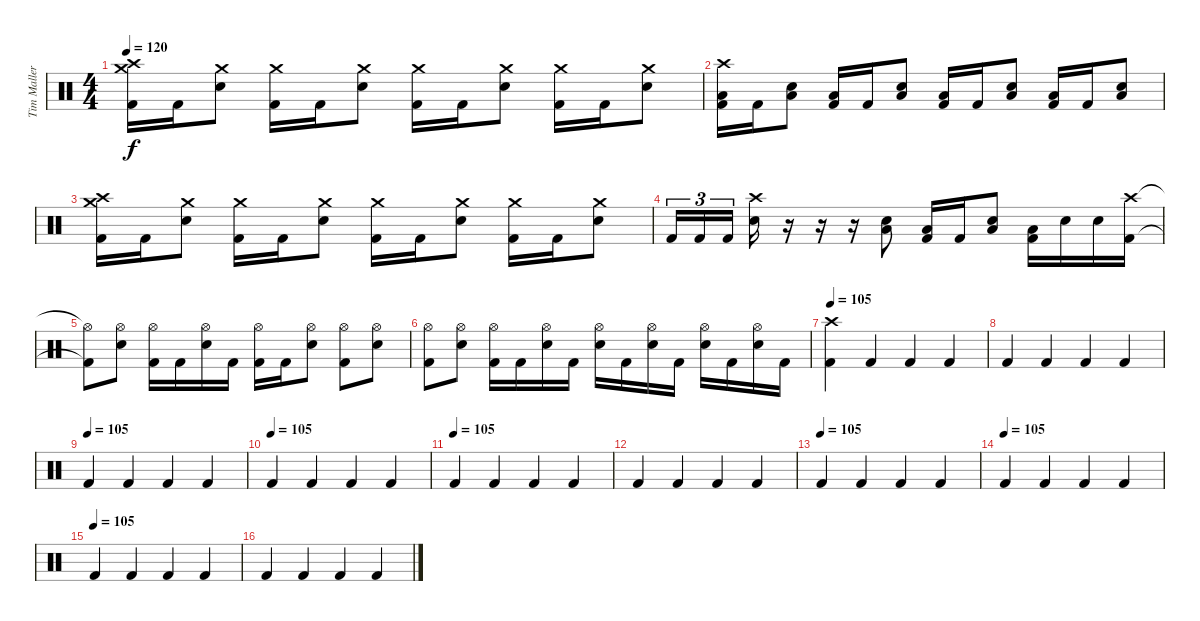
\track ("Tim Mallere" "Tim Maller") {instrument percussion}
\staff {score}
\articulation defaults
\ts (4 4)
\tempo 120
\clef neutral
\ks c
("Crash high (hit)" "Crash medium (hit)" "Kick (hit) 2").16{dy f} "Kick (hit) 2".16 ("Crash medium (hit)" "Electric Snare (hit)").8 ("Crash medium (hit)" "Kick (hit) 2").16 "Kick (hit) 2".16 ("Crash medium (hit)" "Electric Snare (hit)").8 ("Crash medium (hit)" "Kick (hit) 2").16 "Kick (hit) 2".16 ("Crash medium (hit)" "Electric Snare (hit)").8 ("Crash medium (hit)" "Kick (hit) 2").16 "Kick (hit) 2".16 ("Crash medium (hit)" "Electric Snare (hit)").8 |
("Crash high (hit)" "Low Floor Tom (hit)" "Kick (hit) 2").16 "Kick (hit) 2".16 ("Low Floor Tom (hit)" "Electric Snare (hit)").8 ("Low Floor Tom (hit)" "Kick (hit) 2").16 "Kick (hit) 2".16 ("Low Floor Tom (hit)" "Electric Snare (hit)").8 ("Low Floor Tom (hit)" "Kick (hit) 2").16 "Kick (hit) 2".16 ("Low Floor Tom (hit)" "Electric Snare (hit)").8 ("Low Floor Tom (hit)" "Kick (hit) 2").16 "Kick (hit) 2".16 ("Low Floor Tom (hit)" "Electric Snare (hit)").8 |
("Crash high (hit)" "Crash medium (hit)" "Kick (hit) 2").16 "Kick (hit) 2".16 ("Crash medium (hit)" "Electric Snare (hit)").8 ("Crash medium (hit)" "Kick (hit) 2").16 "Kick (hit) 2".16 ("Crash medium (hit)" "Electric Snare (hit)").8 ("Crash medium (hit)" "Kick (hit) 2").16 "Kick (hit) 2".16 ("Crash medium (hit)" "Electric Snare (hit)").8 ("Crash medium (hit)" "Kick (hit) 2").16 "Kick (hit) 2".16 ("Crash medium (hit)" "Electric Snare (hit)").8 |
"Kick (hit) 2".16{tu (3 2)} "Kick (hit) 2".16{tu (3 2)} "Kick (hit) 2".16{tu (3 2)} ("Crash high (hit)" "Electric Snare (hit)").16 r.16 r.16 r.16 ("Low Floor Tom (hit)" "Electric Snare (hit)").8 ("Low Floor Tom (hit)" "Kick (hit) 2").16 "Kick (hit) 2".16 ("Low Floor Tom (hit)" "Electric Snare (hit)").8 ("Low Floor Tom (hit)" "Kick (hit) 2").16 "Electric Snare (hit)".16 "Electric Snare (hit)".16 ("Crash high (hit)" "Kick (hit) 2").16 |
("Hi-Hat (open)"{t} "Kick (hit) 2"{t}).8 ("Hi-Hat (open)" "Electric Snare (hit)").8 ("Hi-Hat (open)" "Kick (hit) 2").16 "Kick (hit) 2".16 ("Hi-Hat (open)" "Electric Snare (hit)").16 "Kick (hit) 2".16 ("Hi-Hat (open)" "Kick (hit) 2").16 "Kick (hit) 2".16 ("Hi-Hat (open)" "Electric Snare (hit)").8 ("Hi-Hat (open)" "Kick (hit) 2").8 ("Hi-Hat (open)" "Electric Snare (hit)").8 |
("Hi-Hat (open)" "Kick (hit) 2").8 ("Hi-Hat (open)" "Electric Snare (hit)").8 ("Hi-Hat (open)" "Kick (hit) 2").16 "Kick (hit) 2".16 ("Hi-Hat (open)" "Electric Snare (hit)").16 "Kick (hit) 2".16 ("Hi-Hat (open)" "Electric Snare (hit)").16 "Kick (hit) 2".16 ("Hi-Hat (open)" "Electric Snare (hit)").16 "Kick (hit) 2".16 ("Hi-Hat (open)" "Electric Snare (hit)").16 "Kick (hit) 2".16 ("Hi-Hat (open)" "Electric Snare (hit)").16 "Kick (hit) 2".16 |
\tempo 105
("Crash high (hit)" "Kick (hit) 2").4 "Kick (hit) 2".4 "Kick (hit) 2".4 "Kick (hit) 2".4 |
"Kick (hit) 2".4 "Kick (hit) 2".4 "Kick (hit) 2".4 "Kick (hit) 2".4 |
\tempo (105)
"Kick (hit) 2".4 "Kick (hit) 2".4 "Kick (hit) 2".4 "Kick (hit) 2".4 |
\tempo (105)
"Kick (hit) 2".4 "Kick (hit) 2".4 "Kick (hit) 2".4 "Kick (hit) 2".4 |
\tempo (105)
"Kick (hit) 2".4 "Kick (hit) 2".4 "Kick (hit) 2".4 "Kick (hit) 2".4 |
"Kick (hit) 2".4 "Kick (hit) 2".4 "Kick (hit) 2".4 "Kick (hit) 2".4 |
\tempo (105)
"Kick (hit) 2".4 "Kick (hit) 2".4 "Kick (hit) 2".4 "Kick (hit) 2".4 |
\tempo (105)
"Kick (hit) 2".4 "Kick (hit) 2".4 "Kick (hit) 2".4 "Kick (hit) 2".4 |
\tempo (105)
"Kick (hit) 2".4 "Kick (hit) 2".4 "Kick (hit) 2".4 "Kick (hit) 2".4 |
"Kick (hit) 2".4 "Kick (hit) 2".4 "Kick (hit) 2".4 "Kick (hit) 2".4
